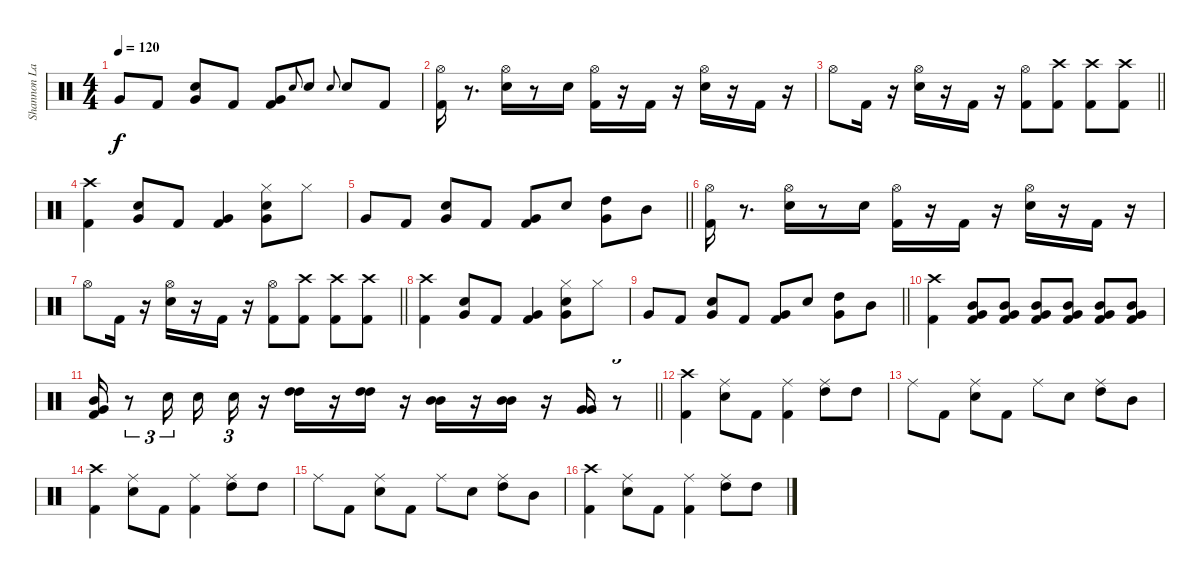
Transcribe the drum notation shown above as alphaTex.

\track ("Shannon Larkin [Drums]" "Shannon La") {instrument percussion}
\staff {score}
\articulation defaults
\ts (4 4)
\tempo 120
\clef neutral
\ks c "Very Low Tom (hit)".8{dy f} "Kick (hit) 2".8
("Very Low Tom (hit)" "Electric Snare (hit)").8 "Kick (hit) 2".8 ("Very Low Tom (hit)" "Kick (hit) 2").8 "Electric Snare (hit)"{h}.8{gr onbeat} "Electric Snare (hit)".8 "Electric Snare (hit)"{h}.8{gr onbeat} "Electric Snare (hit)".8 "Kick (hit) 2".8 |
("Hi-Hat (open)" "Kick (hit) 2").16 r.8{d} ("Hi-Hat (open)" "Electric Snare (hit)").16 r.8 "Electric Snare (hit)".16 ("Hi-Hat (open)" "Kick (hit) 2").16 r.16 "Kick (hit) 2".16 r.16 ("Hi-Hat (open)" "Electric Snare (hit)").16 r.16 "Kick (hit) 2".16 r.16 |
\barLineRight lightlight "Hi-Hat (open)".8 "Kick (hit) 2".16
r.16 ("Hi-Hat (open)" "Electric Snare (hit)").16 r.16 "Kick (hit) 2".16 r.16 ("Hi-Hat (open)" "Kick (hit) 2").8 ("Crash high (hit)" "Kick (hit) 2").8 ("Crash high (hit)" "Kick (hit) 2").8 ("Crash high (hit)" "Kick (hit) 2").8 |
("Crash high (hit)" "Kick (hit) 2").4 ("Very Low Tom (hit)" "Electric Snare (hit)").8 "Kick (hit) 2".8 ("Very Low Tom (hit)" "Kick (hit) 2").4 ("Hi-Hat (closed)" "Very Low Tom (hit)" "Electric Snare (hit)").8 "Hi-Hat (closed)".8 |
\barLineRight lightlight "Very Low Tom (hit)".8 "Kick (hit) 2".8
("Very Low Tom (hit)" "Electric Snare (hit)").8 "Kick (hit) 2".8 ("Very Low Tom (hit)" "Kick (hit) 2").8 "Electric Snare (hit)".8 ("Very Low Tom (hit)" "High Tom (hit)").8 "Mid Tom (hit)".8 |
("Hi-Hat (open)" "Kick (hit) 2").16 r.8{d} ("Hi-Hat (open)" "Electric Snare (hit)").16 r.8 "Electric Snare (hit)".16 ("Hi-Hat (open)" "Kick (hit) 2").16 r.16 "Kick (hit) 2".16 r.16 ("Hi-Hat (open)" "Electric Snare (hit)").16 r.16 "Kick (hit) 2".16 r.16 |
\barLineRight lightlight "Hi-Hat (open)".8 "Kick (hit) 2".16
r.16 ("Hi-Hat (open)" "Electric Snare (hit)").16 r.16 "Kick (hit) 2".16 r.16 ("Hi-Hat (open)" "Kick (hit) 2").8 ("Crash high (hit)" "Kick (hit) 2").8 ("Crash high (hit)" "Kick (hit) 2").8 ("Crash high (hit)" "Kick (hit) 2").8 |
("Crash high (hit)" "Kick (hit) 2").4 ("Very Low Tom (hit)" "Electric Snare (hit)").8 "Kick (hit) 2".8 ("Very Low Tom (hit)" "Kick (hit) 2").4 ("Hi-Hat (closed)" "Very Low Tom (hit)" "Electric Snare (hit)").8 "Hi-Hat (closed)".8 |
\barLineRight lightlight "Very Low Tom (hit)".8 "Kick (hit) 2".8
("Very Low Tom (hit)" "Electric Snare (hit)").8 "Kick (hit) 2".8 ("Very Low Tom (hit)" "Kick (hit) 2").8 "Electric Snare (hit)".8 ("Very Low Tom (hit)" "High Tom (hit)").8 "Mid Tom (hit)".8 |
("Crash high (hit)" "Kick (hit) 2").4 ("Mid Tom (hit)" "Very Low Tom (hit)" "Kick (hit) 2").8 ("Mid Tom (hit)" "Very Low Tom (hit)" "Kick (hit) 2").8 ("Mid Tom (hit)" "Very Low Tom (hit)" "Kick (hit) 2").8 ("Mid Tom (hit)" "Very Low Tom (hit)" "Kick (hit) 2").8 ("Mid Tom (hit)" "Very Low Tom (hit)" "Kick (hit) 2").8 ("Mid Tom (hit)" "Very Low Tom (hit)" "Kick (hit) 2").8 |
\barLineRight lightlight
("Mid Tom (hit)" "Very Low Tom (hit)" "Kick (hit) 2").16 r.8{tu (3 2)} "Electric Snare (hit)".16{tu (3 2)} "Electric Snare (hit)".16 "Electric Snare (hit)".16{tu (3 2)} r.16 ("High Tom (hit)" "High Tom (hit)").16 r.16 ("High Tom (hit)" "High Tom (hit)").16 r.16 ("Mid Tom (hit)" "Mid Tom (hit)").16 r.16 ("Mid Tom (hit)" "Mid Tom (hit)").16 r.16 ("Very Low Tom (hit)" "Very Low Tom (hit)").16 r.8{tu (3 2)} |
("Crash high (hit)" "Kick (hit) 2").4 ("Ride (middle)" "Electric Snare (hit)").8 "Kick (hit) 2".8 ("Ride (middle)" "Kick (hit) 2").4 ("Ride (middle)" "High Tom (hit)").8 "High Tom (hit)".8 |
"Ride (middle)".8 "Kick (hit) 2".8 ("Ride (middle)" "Electric Snare (hit)").8 "Kick (hit) 2".8 "Ride (middle)".8 "Electric Snare (hit)".8 ("Ride (middle)" "High Tom (hit)").8 "Mid Tom (hit)".8 |
("Crash high (hit)" "Kick (hit) 2").4 ("Ride (middle)" "Electric Snare (hit)").8 "Kick (hit) 2".8 ("Ride (middle)" "Kick (hit) 2").4 ("Ride (middle)" "High Tom (hit)").8 "High Tom (hit)".8 |
"Ride (middle)".8 "Kick (hit) 2".8 ("Ride (middle)" "Electric Snare (hit)").8 "Kick (hit) 2".8 "Ride (middle)".8 "Electric Snare (hit)".8 ("Ride (middle)" "High Tom (hit)").8 "Mid Tom (hit)".8 |
("Crash high (hit)" "Kick (hit) 2").4 ("Ride (middle)" "Electric Snare (hit)").8 "Kick (hit) 2".8 ("Ride (middle)" "Kick (hit) 2").4 ("Ride (middle)" "High Tom (hit)").8 "High Tom (hit)".8
